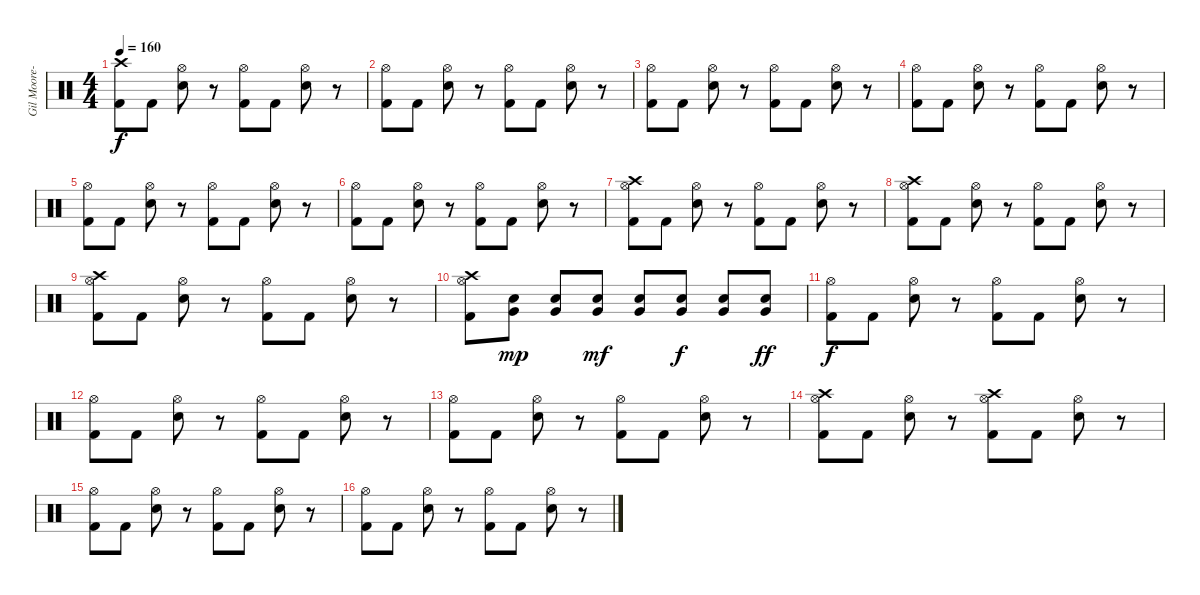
\track ("Gil Moore-Drums n Vocals" "Gil Moore-") {instrument percussion}
\staff {score}
\articulation defaults
\ts (4 4)
\tempo 160
\clef neutral
\ks c
("Kick (hit) 2" "Crash high (hit)").8{dy f} "Kick (hit) 2".8 ("Electric Snare (hit)" "Hi-Hat (open)").8 r.8 ("Kick (hit) 2" "Hi-Hat (open)").8 "Kick (hit) 2".8 ("Electric Snare (hit)" "Hi-Hat (open)").8 r.8 |
("Kick (hit) 2" "Hi-Hat (open)").8 "Kick (hit) 2".8 ("Electric Snare (hit)" "Hi-Hat (open)").8 r.8 ("Kick (hit) 2" "Hi-Hat (open)").8 "Kick (hit) 2".8 ("Electric Snare (hit)" "Hi-Hat (open)").8 r.8 |
("Kick (hit) 2" "Hi-Hat (open)").8 "Kick (hit) 2".8 ("Electric Snare (hit)" "Hi-Hat (open)").8 r.8 ("Kick (hit) 2" "Hi-Hat (open)").8 "Kick (hit) 2".8 ("Electric Snare (hit)" "Hi-Hat (open)").8 r.8 |
("Kick (hit) 2" "Hi-Hat (open)").8 "Kick (hit) 2".8 ("Electric Snare (hit)" "Hi-Hat (open)").8 r.8 ("Kick (hit) 2" "Hi-Hat (open)").8 "Kick (hit) 2".8 ("Electric Snare (hit)" "Hi-Hat (open)").8 r.8 |
("Kick (hit) 2" "Hi-Hat (open)").8 "Kick (hit) 2".8 ("Electric Snare (hit)" "Hi-Hat (open)").8 r.8 ("Kick (hit) 2" "Hi-Hat (open)").8 "Kick (hit) 2".8 ("Electric Snare (hit)" "Hi-Hat (open)").8 r.8 |
("Kick (hit) 2" "Hi-Hat (open)").8 "Kick (hit) 2".8 ("Electric Snare (hit)" "Hi-Hat (open)").8 r.8 ("Kick (hit) 2" "Hi-Hat (open)").8 "Kick (hit) 2".8 ("Electric Snare (hit)" "Hi-Hat (open)").8 r.8 |
("Kick (hit) 2" "Hi-Hat (open)" "Crash high (hit)").8 "Kick (hit) 2".8 ("Electric Snare (hit)" "Hi-Hat (open)").8 r.8 ("Kick (hit) 2" "Hi-Hat (open)").8 "Kick (hit) 2".8 ("Electric Snare (hit)" "Hi-Hat (open)").8 r.8 |
("Kick (hit) 2" "Hi-Hat (open)" "Crash high (hit)").8 "Kick (hit) 2".8 ("Electric Snare (hit)" "Hi-Hat (open)").8 r.8 ("Kick (hit) 2" "Hi-Hat (open)").8 "Kick (hit) 2".8 ("Electric Snare (hit)" "Hi-Hat (open)").8 r.8 |
("Kick (hit) 2" "Hi-Hat (open)" "Crash high (hit)").8 "Kick (hit) 2".8 ("Electric Snare (hit)" "Hi-Hat (open)").8 r.8 ("Kick (hit) 2" "Hi-Hat (open)").8 "Kick (hit) 2".8 ("Electric Snare (hit)" "Hi-Hat (open)").8 r.8 |
("Kick (hit) 2" "Hi-Hat (open)" "Crash high (hit)").8 ("Electric Snare (hit)" "Very Low Tom (hit)").8{dy mp} ("Electric Snare (hit)" "Very Low Tom (hit)").8 ("Electric Snare (hit)" "Very Low Tom (hit)").8{dy mf} ("Electric Snare (hit)" "Very Low Tom (hit)").8 ("Electric Snare (hit)" "Very Low Tom (hit)").8{dy f} ("Electric Snare (hit)" "Very Low Tom (hit)").8 ("Electric Snare (hit)" "Very Low Tom (hit)").8{dy ff} |
("Kick (hit) 2" "Hi-Hat (open)").8{dy f} "Kick (hit) 2".8 ("Electric Snare (hit)" "Hi-Hat (open)").8 r.8 ("Kick (hit) 2" "Hi-Hat (open)").8 "Kick (hit) 2".8 ("Electric Snare (hit)" "Hi-Hat (open)").8 r.8 |
("Kick (hit) 2" "Hi-Hat (open)").8 "Kick (hit) 2".8 ("Electric Snare (hit)" "Hi-Hat (open)").8 r.8 ("Kick (hit) 2" "Hi-Hat (open)").8 "Kick (hit) 2".8 ("Electric Snare (hit)" "Hi-Hat (open)").8 r.8 |
("Kick (hit) 2" "Hi-Hat (open)").8 "Kick (hit) 2".8 ("Electric Snare (hit)" "Hi-Hat (open)").8 r.8 ("Kick (hit) 2" "Hi-Hat (open)").8 "Kick (hit) 2".8 ("Electric Snare (hit)" "Hi-Hat (open)").8 r.8 |
("Kick (hit) 2" "Hi-Hat (open)" "Crash high (hit)").8 "Kick (hit) 2".8 ("Electric Snare (hit)" "Hi-Hat (open)").8 r.8 ("Kick (hit) 2" "Hi-Hat (open)" "Crash high (hit)").8 "Kick (hit) 2".8 ("Electric Snare (hit)" "Hi-Hat (open)").8 r.8 |
("Kick (hit) 2" "Hi-Hat (open)").8 "Kick (hit) 2".8 ("Electric Snare (hit)" "Hi-Hat (open)").8 r.8 ("Kick (hit) 2" "Hi-Hat (open)").8 "Kick (hit) 2".8 ("Electric Snare (hit)" "Hi-Hat (open)").8 r.8 |
("Kick (hit) 2" "Hi-Hat (open)").8 "Kick (hit) 2".8 ("Electric Snare (hit)" "Hi-Hat (open)").8 r.8 ("Kick (hit) 2" "Hi-Hat (open)").8 "Kick (hit) 2".8 ("Electric Snare (hit)" "Hi-Hat (open)").8 r.8
